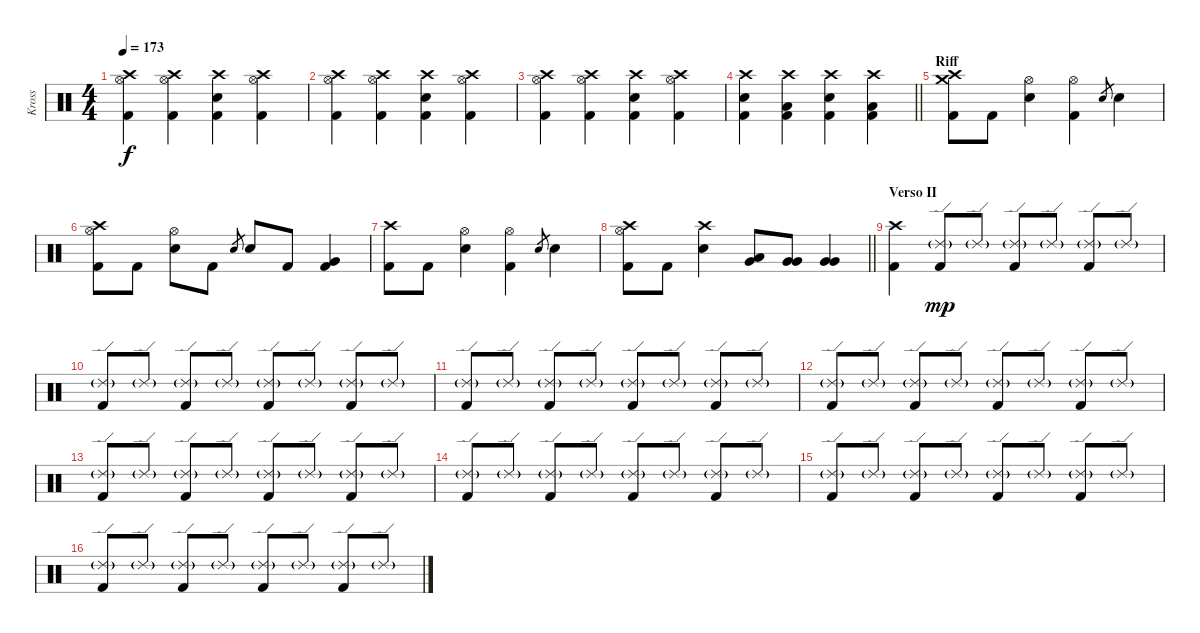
\track ("Kross" "Kross") {instrument percussion}
\staff {score}
\articulation defaults
\ts (4 4)
\tempo 173
\clef neutral
\ks c
("Crash high (hit)" "Hi-Hat (open)" "Kick (hit) 2").4{dy f} ("Crash high (hit)" "Hi-Hat (open)" "Kick (hit) 2").4 ("Crash high (hit)" "Electric Snare (hit)" "Kick (hit) 2").4 ("Crash high (hit)" "Hi-Hat (open)" "Kick (hit) 2").4 |
("Crash high (hit)" "Hi-Hat (open)" "Kick (hit) 2").4 ("Crash high (hit)" "Hi-Hat (open)" "Kick (hit) 2").4 ("Crash high (hit)" "Electric Snare (hit)" "Kick (hit) 2").4 ("Crash high (hit)" "Hi-Hat (open)" "Kick (hit) 2").4 |
("Crash high (hit)" "Hi-Hat (open)" "Kick (hit) 2").4 ("Crash high (hit)" "Hi-Hat (open)" "Kick (hit) 2").4 ("Crash high (hit)" "Electric Snare (hit)" "Kick (hit) 2").4 ("Crash high (hit)" "Hi-Hat (open)" "Kick (hit) 2").4 |
\barLineRight lightlight
("Crash high (hit)" "Electric Snare (hit)" "Kick (hit) 2").4 ("Crash high (hit)" "Low Tom (hit)" "Kick (hit) 2").4 ("Crash high (hit)" "Electric Snare (hit)" "Kick (hit) 2").4 ("Crash high (hit)" "Low Tom (hit)" "Kick (hit) 2").4 |
\section ("" "Riff")
("Crash medium (hit)" "Crash high (hit)" "Kick (hit) 2").8 "Kick (hit) 2".8 ("Hi-Hat (open)" "Electric Snare (hit)").4 ("Hi-Hat (open)" "Kick (hit) 2").4 "Electric Snare (hit)".8{gr} "Electric Snare (hit)".4 |
("Crash high (hit)" "Hi-Hat (open)" "Kick (hit) 2").8 "Kick (hit) 2".8 ("Hi-Hat (open)" "Electric Snare (hit)").8 "Kick (hit) 2".8 "Electric Snare (hit)".8{gr} "Electric Snare (hit)".8 "Kick (hit) 2".8 ("Very Low Tom (hit)" "Kick (hit) 2").4 |
("Crash high (hit)" "Kick (hit) 2").8 "Kick (hit) 2".8 ("Hi-Hat (open)" "Electric Snare (hit)").4 ("Hi-Hat (open)" "Kick (hit) 2").4 "Electric Snare (hit)".8{gr} "Electric Snare (hit)".4 |
\barLineRight lightlight
("Crash high (hit)" "Hi-Hat (open)" "Kick (hit) 2").8 "Kick (hit) 2".8 ("Crash high (hit)" "Electric Snare (hit)").4 ("Low Tom (hit)" "Very Low Tom (hit)").8 ("Very Low Tom (hit)" "Very Low Tom (hit)").8 ("Very Low Tom (hit)" "Very Low Tom (hit)").4 |
\section ("" "Verso II")
("Crash high (hit)" "Kick (hit) 2").4 ("Ride (edge) 2"{g} "Kick (hit) 2").8{dy mp} "Ride (edge) 2"{g}.8 ("Ride (edge) 2"{g} "Kick (hit) 2").8 "Ride (edge) 2"{g}.8 ("Ride (edge) 2"{g} "Kick (hit) 2").8 "Ride (edge) 2"{g}.8 |
("Ride (edge) 2"{g} "Kick (hit) 2").8 "Ride (edge) 2"{g}.8 ("Ride (edge) 2"{g} "Kick (hit) 2").8 "Ride (edge) 2"{g}.8 ("Ride (edge) 2"{g} "Kick (hit) 2").8 "Ride (edge) 2"{g}.8 ("Ride (edge) 2"{g} "Kick (hit) 2").8 "Ride (edge) 2"{g}.8 |
("Ride (edge) 2"{g} "Kick (hit) 2").8 "Ride (edge) 2"{g}.8 ("Ride (edge) 2"{g} "Kick (hit) 2").8 "Ride (edge) 2"{g}.8 ("Ride (edge) 2"{g} "Kick (hit) 2").8 "Ride (edge) 2"{g}.8 ("Ride (edge) 2"{g} "Kick (hit) 2").8 "Ride (edge) 2"{g}.8 |
("Ride (edge) 2"{g} "Kick (hit) 2").8 "Ride (edge) 2"{g}.8 ("Ride (edge) 2"{g} "Kick (hit) 2").8 "Ride (edge) 2"{g}.8 ("Ride (edge) 2"{g} "Kick (hit) 2").8 "Ride (edge) 2"{g}.8 ("Ride (edge) 2"{g} "Kick (hit) 2").8 "Ride (edge) 2"{g}.8 |
("Ride (edge) 2"{g} "Kick (hit) 2").8 "Ride (edge) 2"{g}.8 ("Ride (edge) 2"{g} "Kick (hit) 2").8 "Ride (edge) 2"{g}.8 ("Ride (edge) 2"{g} "Kick (hit) 2").8 "Ride (edge) 2"{g}.8 ("Ride (edge) 2"{g} "Kick (hit) 2").8 "Ride (edge) 2"{g}.8 |
("Ride (edge) 2"{g} "Kick (hit) 2").8 "Ride (edge) 2"{g}.8 ("Ride (edge) 2"{g} "Kick (hit) 2").8 "Ride (edge) 2"{g}.8 ("Ride (edge) 2"{g} "Kick (hit) 2").8 "Ride (edge) 2"{g}.8 ("Ride (edge) 2"{g} "Kick (hit) 2").8 "Ride (edge) 2"{g}.8 |
("Ride (edge) 2"{g} "Kick (hit) 2").8 "Ride (edge) 2"{g}.8 ("Ride (edge) 2"{g} "Kick (hit) 2").8 "Ride (edge) 2"{g}.8 ("Ride (edge) 2"{g} "Kick (hit) 2").8 "Ride (edge) 2"{g}.8 ("Ride (edge) 2"{g} "Kick (hit) 2").8 "Ride (edge) 2"{g}.8 |
("Ride (edge) 2"{g} "Kick (hit) 2").8 "Ride (edge) 2"{g}.8 ("Ride (edge) 2"{g} "Kick (hit) 2").8 "Ride (edge) 2"{g}.8 ("Ride (edge) 2"{g} "Kick (hit) 2").8 "Ride (edge) 2"{g}.8 ("Ride (edge) 2"{g} "Kick (hit) 2").8 "Ride (edge) 2"{g}.8
